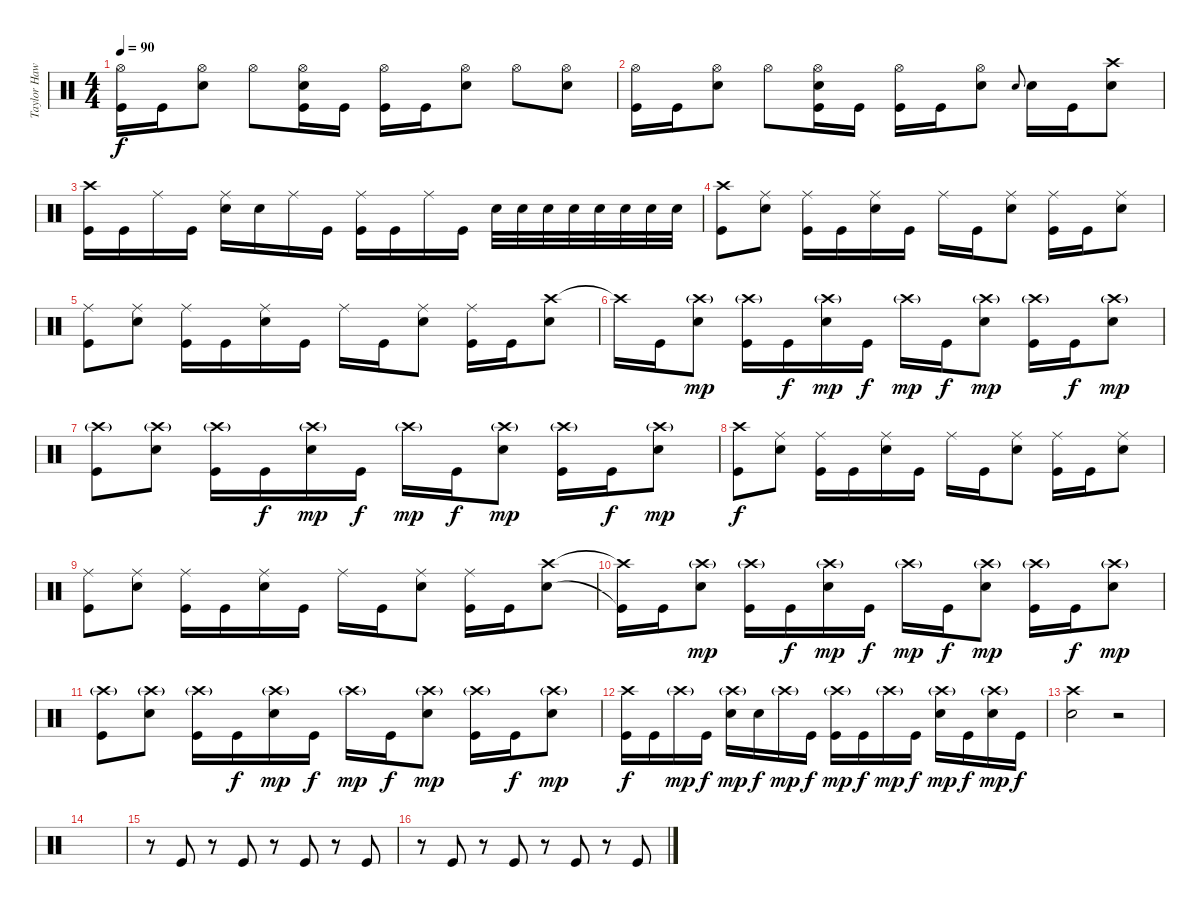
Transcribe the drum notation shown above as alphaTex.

\track ("Taylor Hawkins - Drums" "Taylor Haw") {instrument percussion}
\staff {score}
\articulation defaults
\ts (4 4)
\tempo 90
\clef neutral
\ks c
("Hi-Hat (open)" "Kick (hit)").16{dy f} "Kick (hit)".16 ("Hi-Hat (open)" "Electric Snare (hit)").8 "Hi-Hat (open)".8 ("Hi-Hat (open)" "Electric Snare (hit)" "Kick (hit)").16 "Kick (hit)".16 ("Hi-Hat (open)" "Kick (hit)").16 "Kick (hit)".16 ("Hi-Hat (open)" "Electric Snare (hit)").8 "Hi-Hat (open)".8 ("Hi-Hat (open)" "Electric Snare (hit)").8 |
("Hi-Hat (open)" "Kick (hit)").16 "Kick (hit)".16 ("Hi-Hat (open)" "Electric Snare (hit)").8 "Hi-Hat (open)".8 ("Hi-Hat (open)" "Electric Snare (hit)" "Kick (hit)").16 "Kick (hit)".16 ("Hi-Hat (open)" "Kick (hit)").16 "Kick (hit)".16 ("Hi-Hat (open)" "Electric Snare (hit)").8 "Electric Snare (hit)".8{gr onbeat} "Electric Snare (hit)".16 "Kick (hit)".16 ("Crash high (hit)" "Electric Snare (hit)").8 |
("Crash high (hit)" "Kick (hit)").16 "Kick (hit)".16 "Ride (middle)".16 "Kick (hit)".16 ("Ride (middle)" "Electric Snare (hit)").16 "Electric Snare (hit)".16 "Ride (middle)".16 "Kick (hit)".16 ("Ride (middle)" "Kick (hit)").16 "Kick (hit)".16 "Ride (middle)".16 "Kick (hit)".16 "Electric Snare (hit)".32 "Electric Snare (hit)".32 "Electric Snare (hit)".32 "Electric Snare (hit)".32 "Electric Snare (hit)".32 "Electric Snare (hit)".32 "Electric Snare (hit)".32 "Electric Snare (hit)".32 |
("Crash high (hit)" "Kick (hit)").8 ("Ride (middle)" "Electric Snare (hit)").8 ("Ride (middle)" "Kick (hit)").16 "Kick (hit)".16 ("Ride (middle)" "Electric Snare (hit)").16 "Kick (hit)".16 "Ride (middle)".16 "Kick (hit)".16 ("Ride (middle)" "Electric Snare (hit)").8 ("Ride (middle)" "Kick (hit)").16 "Kick (hit)".16 ("Ride (middle)" "Snare (hit) 2").8 |
("Ride (middle)" "Kick (hit)").8 ("Ride (middle)" "Electric Snare (hit)").8 ("Ride (middle)" "Kick (hit)").16 "Kick (hit)".16 ("Ride (middle)" "Electric Snare (hit)").16 "Kick (hit)".16 "Ride (middle)".16 "Kick (hit)".16 ("Ride (middle)" "Electric Snare (hit)").8 ("Ride (middle)" "Kick (hit)").16 "Kick (hit)".16 ("Crash high (hit)" "Snare (hit) 2").8 |
"Crash high (hit)"{t}.16 "Kick (hit)".16 ("Crash high (hit)"{g} "Electric Snare (hit)").8{dy mp} ("Crash high (hit)"{g} "Kick (hit)").16 "Kick (hit)".16{dy f} ("Crash high (hit)"{g} "Electric Snare (hit)").16{dy mp} "Kick (hit)".16{dy f} "Crash high (hit)"{g}.16{dy mp} "Kick (hit)".16{dy f} ("Crash high (hit)"{g} "Electric Snare (hit)").8{dy mp} ("Crash high (hit)"{g} "Kick (hit)").16 "Kick (hit)".16{dy f} ("Crash high (hit)"{g} "Snare (hit) 2").8{dy mp} |
("Crash high (hit)"{g} "Kick (hit)").8 ("Crash high (hit)"{g} "Electric Snare (hit)").8 ("Crash high (hit)"{g} "Kick (hit)").16 "Kick (hit)".16{dy f} ("Crash high (hit)"{g} "Electric Snare (hit)").16{dy mp} "Kick (hit)".16{dy f} "Crash high (hit)"{g}.16{dy mp} "Kick (hit)".16{dy f} ("Crash high (hit)"{g} "Electric Snare (hit)").8{dy mp} ("Crash high (hit)"{g} "Kick (hit)").16 "Kick (hit)".16{dy f} ("Crash high (hit)"{g} "Electric Snare (hit)").8{dy mp} |
("Crash high (hit)" "Kick (hit)").8{dy f} ("Ride (middle)" "Electric Snare (hit)").8 ("Ride (middle)" "Kick (hit)").16 "Kick (hit)".16 ("Ride (middle)" "Electric Snare (hit)").16 "Kick (hit)".16 "Ride (middle)".16 "Kick (hit)".16 ("Ride (middle)" "Electric Snare (hit)").8 ("Ride (middle)" "Kick (hit)").16 "Kick (hit)".16 ("Ride (middle)" "Snare (hit) 2").8 |
("Ride (middle)" "Kick (hit)").8 ("Ride (middle)" "Electric Snare (hit)").8 ("Ride (middle)" "Kick (hit)").16 "Kick (hit)".16 ("Ride (middle)" "Electric Snare (hit)").16 "Kick (hit)".16 "Ride (middle)".16 "Kick (hit)".16 ("Ride (middle)" "Electric Snare (hit)").8 ("Ride (middle)" "Kick (hit)").16 "Kick (hit)".16 ("Crash high (hit)" "Snare (hit) 2").8 |
("Crash high (hit)"{t} "Kick (hit)"{t}).16 "Kick (hit)".16 ("Crash high (hit)"{g} "Electric Snare (hit)").8{dy mp} ("Crash high (hit)"{g} "Kick (hit)").16 "Kick (hit)".16{dy f} ("Crash high (hit)"{g} "Electric Snare (hit)").16{dy mp} "Kick (hit)".16{dy f} "Crash high (hit)"{g}.16{dy mp} "Kick (hit)".16{dy f} ("Crash high (hit)"{g} "Electric Snare (hit)").8{dy mp} ("Crash high (hit)"{g} "Kick (hit)").16 "Kick (hit)".16{dy f} ("Crash high (hit)"{g} "Snare (hit) 2").8{dy mp} |
("Crash high (hit)"{g} "Kick (hit)").8 ("Crash high (hit)"{g} "Electric Snare (hit)").8 ("Crash high (hit)"{g} "Kick (hit)").16 "Kick (hit)".16{dy f} ("Crash high (hit)"{g} "Electric Snare (hit)").16{dy mp} "Kick (hit)".16{dy f} "Crash high (hit)"{g}.16{dy mp} "Kick (hit)".16{dy f} ("Crash high (hit)"{g} "Electric Snare (hit)").8{dy mp} ("Crash high (hit)"{g} "Kick (hit)").16 "Kick (hit)".16{dy f} ("Crash high (hit)"{g} "Electric Snare (hit)").8{dy mp} |
("Crash high (hit)" "Kick (hit)").16{dy f} "Kick (hit)".16 "Crash high (hit)"{g}.16{dy mp} "Kick (hit)".16{dy f} ("Crash high (hit)"{g} "Electric Snare (hit)").16{dy mp} "Electric Snare (hit)".16{dy f} "Crash high (hit)"{g}.16{dy mp} "Kick (hit)".16{dy f} ("Crash high (hit)"{g} "Kick (hit)").16{dy mp} "Kick (hit)".16{dy f} "Crash high (hit)"{g}.16{dy mp} "Kick (hit)".16{dy f} ("Crash high (hit)"{g} "Electric Snare (hit)").16{dy mp} "Kick (hit)".16{dy f} ("Crash high (hit)"{g} "Electric Snare (hit)").16{dy mp} "Kick (hit)".16{dy f} |
("Crash high (hit)" "Snare (hit) 2").2{volume 0} r.2{volume 13} |
|
r.8 "Kick (hit)".8 r.8 "Kick (hit)".8 r.8 "Kick (hit)".8 r.8 "Kick (hit)".8 |
r.8 "Kick (hit)".8 r.8 "Kick (hit)".8 r.8 "Kick (hit)".8 r.8 "Kick (hit)".8
